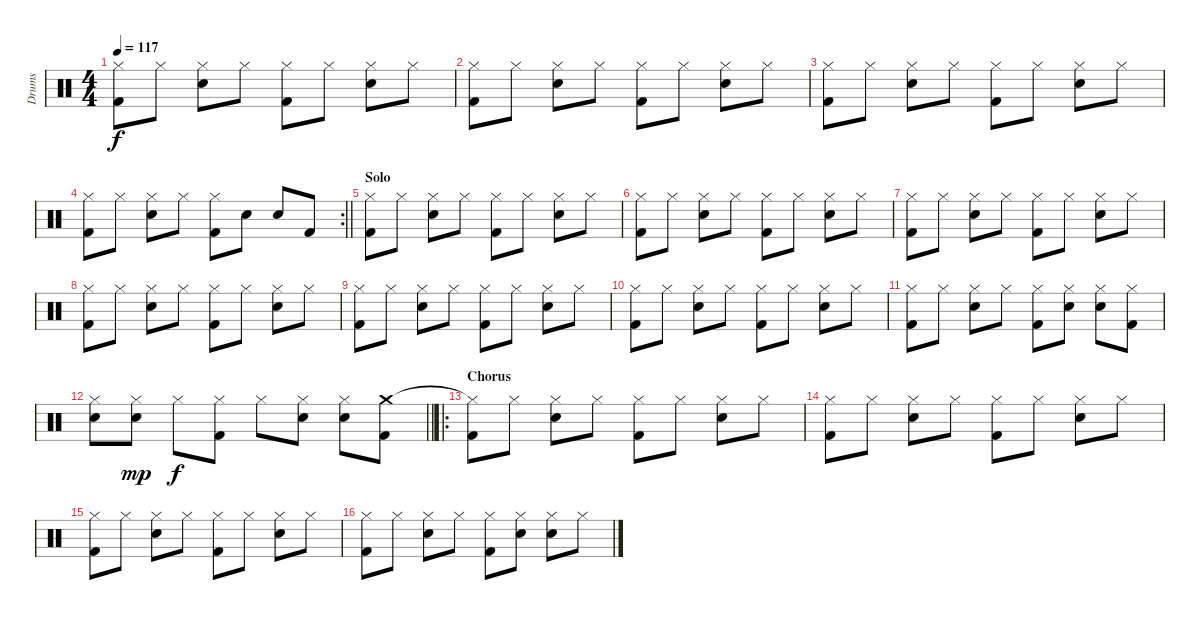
\track ("Drums" "Drums") {instrument percussion}
\staff {score}
\articulation defaults
\ts (4 4)
\tempo 117
\clef neutral
\ks c
("Hi-Hat (closed)" "Kick (hit) 2").8{dy f} "Hi-Hat (closed)".8 ("Hi-Hat (closed)" "Snare (hit) 2").8 "Hi-Hat (closed)".8 ("Hi-Hat (closed)" "Kick (hit) 2").8 "Hi-Hat (closed)".8 ("Hi-Hat (closed)" "Snare (hit) 2").8 "Hi-Hat (closed)".8 |
("Hi-Hat (closed)" "Kick (hit) 2").8 "Hi-Hat (closed)".8 ("Hi-Hat (closed)" "Snare (hit) 2").8 "Hi-Hat (closed)".8 ("Hi-Hat (closed)" "Kick (hit) 2").8 "Hi-Hat (closed)".8 ("Hi-Hat (closed)" "Snare (hit) 2").8 "Hi-Hat (closed)".8 |
("Hi-Hat (closed)" "Kick (hit) 2").8 "Hi-Hat (closed)".8 ("Hi-Hat (closed)" "Snare (hit) 2").8 "Hi-Hat (closed)".8 ("Hi-Hat (closed)" "Kick (hit) 2").8 "Hi-Hat (closed)".8 ("Hi-Hat (closed)" "Snare (hit) 2").8 "Hi-Hat (closed)".8 |
\rc 2
\barLineRight lightlight
("Hi-Hat (closed)" "Kick (hit) 2").8 "Hi-Hat (closed)".8 ("Hi-Hat (closed)" "Snare (hit) 2").8 "Hi-Hat (closed)".8 ("Hi-Hat (closed)" "Kick (hit) 2").8 "Electric Snare (hit)".8 "Electric Snare (hit)".8 "Kick (hit) 2".8 |
\section ("" "Solo")
("Hi-Hat (closed)" "Kick (hit) 2").8 "Hi-Hat (closed)".8 ("Hi-Hat (closed)" "Snare (hit) 2").8 "Hi-Hat (closed)".8 ("Hi-Hat (closed)" "Kick (hit) 2").8 "Hi-Hat (closed)".8 ("Hi-Hat (closed)" "Snare (hit) 2").8 "Hi-Hat (closed)".8 |
("Hi-Hat (closed)" "Kick (hit) 2").8 "Hi-Hat (closed)".8 ("Hi-Hat (closed)" "Snare (hit) 2").8 "Hi-Hat (closed)".8 ("Hi-Hat (closed)" "Kick (hit) 2").8 "Hi-Hat (closed)".8 ("Hi-Hat (closed)" "Snare (hit) 2").8 "Hi-Hat (closed)".8 |
("Hi-Hat (closed)" "Kick (hit) 2").8 "Hi-Hat (closed)".8 ("Hi-Hat (closed)" "Snare (hit) 2").8 "Hi-Hat (closed)".8 ("Hi-Hat (closed)" "Kick (hit) 2").8 "Hi-Hat (closed)".8 ("Hi-Hat (closed)" "Snare (hit) 2").8 "Hi-Hat (closed)".8 |
("Hi-Hat (closed)" "Kick (hit) 2").8 "Hi-Hat (closed)".8 ("Hi-Hat (closed)" "Snare (hit) 2").8 "Hi-Hat (closed)".8 ("Hi-Hat (closed)" "Kick (hit) 2").8 "Hi-Hat (closed)".8 ("Hi-Hat (closed)" "Snare (hit) 2").8 "Hi-Hat (closed)".8 |
("Hi-Hat (closed)" "Kick (hit) 2").8 "Hi-Hat (closed)".8 ("Hi-Hat (closed)" "Snare (hit) 2").8 "Hi-Hat (closed)".8 ("Hi-Hat (closed)" "Kick (hit) 2").8 "Hi-Hat (closed)".8 ("Hi-Hat (closed)" "Snare (hit) 2").8 "Hi-Hat (closed)".8 |
("Hi-Hat (closed)" "Kick (hit) 2").8 "Hi-Hat (closed)".8 ("Hi-Hat (closed)" "Snare (hit) 2").8 "Hi-Hat (closed)".8 ("Hi-Hat (closed)" "Kick (hit) 2").8 "Hi-Hat (closed)".8 ("Hi-Hat (closed)" "Snare (hit) 2").8 "Hi-Hat (closed)".8 |
("Hi-Hat (closed)" "Kick (hit) 2").8 "Hi-Hat (closed)".8 ("Hi-Hat (closed)" "Snare (hit) 2").8 "Hi-Hat (closed)".8 ("Hi-Hat (closed)" "Kick (hit) 2").8 ("Hi-Hat (closed)" "Snare (hit) 2").8 ("Hi-Hat (closed)" "Snare (hit) 2").8 ("Hi-Hat (closed)" "Kick (hit) 2").8 |
\barLineRight lightlight
("Hi-Hat (closed)" "Snare (hit) 2").8 ("Hi-Hat (closed)" "Snare (hit) 2").8{dy mp} "Hi-Hat (closed)".8{dy f} ("Hi-Hat (closed)" "Kick (hit) 2").8 "Hi-Hat (closed)".8 ("Hi-Hat (closed)" "Snare (hit) 2").8 ("Hi-Hat (closed)" "Snare (hit) 2").8 ("Crash medium (hit)" "Kick (hit) 2").8 |
\ro
\section ("" "Chorus")
("Hi-Hat (closed)"{t} "Kick (hit) 2").8 "Hi-Hat (closed)".8 ("Hi-Hat (closed)" "Snare (hit) 2").8 "Hi-Hat (closed)".8 ("Hi-Hat (closed)" "Kick (hit) 2").8 "Hi-Hat (closed)".8 ("Hi-Hat (closed)" "Snare (hit) 2").8 "Hi-Hat (closed)".8 |
("Hi-Hat (closed)" "Kick (hit) 2").8 "Hi-Hat (closed)".8 ("Hi-Hat (closed)" "Snare (hit) 2").8 "Hi-Hat (closed)".8 ("Hi-Hat (closed)" "Kick (hit) 2").8 "Hi-Hat (closed)".8 ("Hi-Hat (closed)" "Snare (hit) 2").8 "Hi-Hat (closed)".8 |
("Hi-Hat (closed)" "Kick (hit) 2").8 "Hi-Hat (closed)".8 ("Hi-Hat (closed)" "Snare (hit) 2").8 "Hi-Hat (closed)".8 ("Hi-Hat (closed)" "Kick (hit) 2").8 "Hi-Hat (closed)".8 ("Hi-Hat (closed)" "Snare (hit) 2").8 "Hi-Hat (closed)".8 |
("Hi-Hat (closed)" "Kick (hit) 2").8 "Hi-Hat (closed)".8 ("Hi-Hat (closed)" "Snare (hit) 2").8 "Hi-Hat (closed)".8 ("Hi-Hat (closed)" "Kick (hit) 2").8 ("Hi-Hat (closed)" "Snare (hit) 2").8 ("Hi-Hat (closed)" "Snare (hit) 2").8 "Hi-Hat (closed)".8
